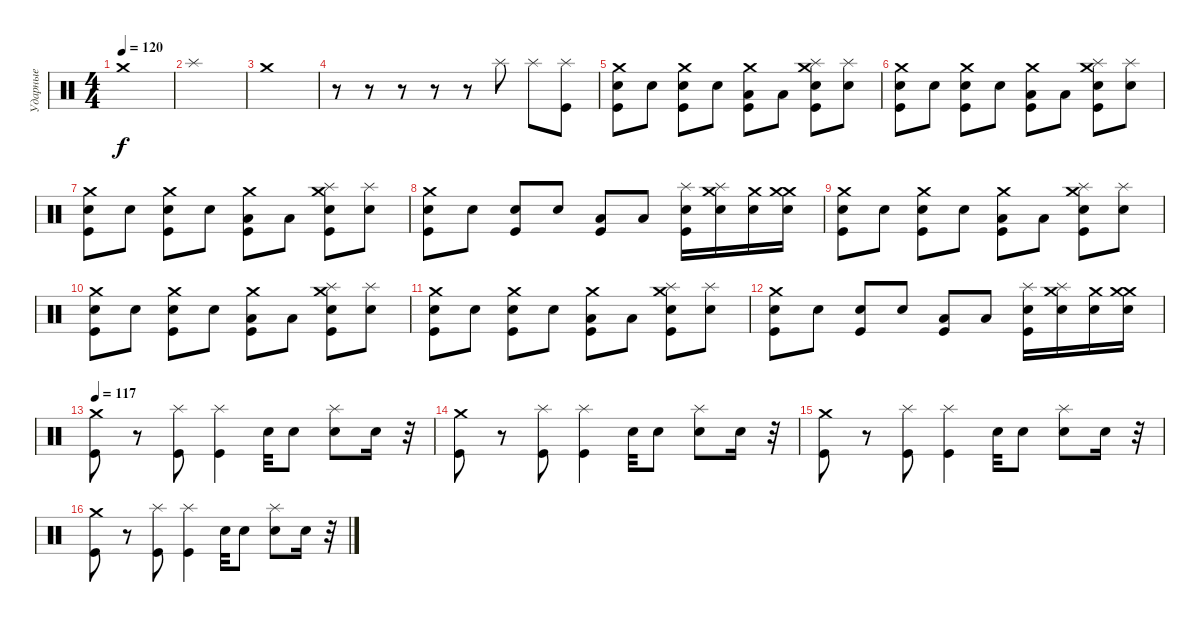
\track ("Ударные" "Ударные") {instrument percussion}
\staff {score}
\articulation defaults
\ts (4 4)
\tempo 120
\clef neutral
\ks c "Crash medium (hit)".1{dy f}
|
"Splash (hit)".1 |
"Crash medium (hit)".1 |
r.8 r.8 r.8 r.8 r.8 "Splash (hit)".8 "Splash (hit)".8 ("Splash (hit)" "Kick (hit)").8 |
("Crash medium (hit)" "Snare (hit) 2" "Kick (hit)").8 "Snare (hit) 2".8 ("Crash medium (hit)" "Electric Snare (hit)" "Kick (hit)").8 "Electric Snare (hit)".8 ("Crash medium (hit)" "Low Floor Tom (hit)" "Kick (hit)").8 "Low Floor Tom (hit)".8 ("Splash (hit)" "Crash medium (hit)" "Electric Snare (hit)" "Kick (hit)").8 ("Splash (hit)" "Electric Snare (hit)").8 |
("Crash medium (hit)" "Snare (hit) 2" "Kick (hit)").8 "Snare (hit) 2".8 ("Crash medium (hit)" "Electric Snare (hit)" "Kick (hit)").8 "Electric Snare (hit)".8 ("Crash medium (hit)" "Low Floor Tom (hit)" "Kick (hit)").8 "Low Floor Tom (hit)".8 ("Splash (hit)" "Crash medium (hit)" "Electric Snare (hit)" "Kick (hit)").8 ("Splash (hit)" "Electric Snare (hit)").8 |
("Crash medium (hit)" "Snare (hit) 2" "Kick (hit)").8 "Snare (hit) 2".8 ("Crash medium (hit)" "Electric Snare (hit)" "Kick (hit)").8 "Electric Snare (hit)".8 ("Crash medium (hit)" "Low Floor Tom (hit)" "Kick (hit)").8 "Low Floor Tom (hit)".8 ("Splash (hit)" "Crash medium (hit)" "Electric Snare (hit)" "Kick (hit)").8 ("Splash (hit)" "Electric Snare (hit)").8 |
("Crash medium (hit)" "Snare (hit) 2" "Kick (hit)").8 "Snare (hit) 2".8 ("Electric Snare (hit)" "Kick (hit)").8 "Electric Snare (hit)".8 ("Low Floor Tom (hit)" "Kick (hit)").8 "Low Floor Tom (hit)".8 ("Splash (hit)" "Electric Snare (hit)" "Kick (hit)").16 ("Splash (hit)" "Crash medium (hit)" "Snare (hit) 2").16 ("Crash medium (hit)" "Snare (hit) 2").16 ("Crash medium (hit)" "Crash medium (hit)" "Snare (hit) 2").16 |
("Crash medium (hit)" "Snare (hit) 2" "Kick (hit)").8 "Snare (hit) 2".8 ("Crash medium (hit)" "Electric Snare (hit)" "Kick (hit)").8 "Electric Snare (hit)".8 ("Crash medium (hit)" "Low Floor Tom (hit)" "Kick (hit)").8 "Low Floor Tom (hit)".8 ("Splash (hit)" "Crash medium (hit)" "Electric Snare (hit)" "Kick (hit)").8 ("Splash (hit)" "Electric Snare (hit)").8 |
("Crash medium (hit)" "Snare (hit) 2" "Kick (hit)").8 "Snare (hit) 2".8 ("Crash medium (hit)" "Electric Snare (hit)" "Kick (hit)").8 "Electric Snare (hit)".8 ("Crash medium (hit)" "Low Floor Tom (hit)" "Kick (hit)").8 "Low Floor Tom (hit)".8 ("Splash (hit)" "Crash medium (hit)" "Electric Snare (hit)" "Kick (hit)").8 ("Splash (hit)" "Electric Snare (hit)").8 |
("Crash medium (hit)" "Snare (hit) 2" "Kick (hit)").8 "Snare (hit) 2".8 ("Crash medium (hit)" "Electric Snare (hit)" "Kick (hit)").8 "Electric Snare (hit)".8 ("Crash medium (hit)" "Low Floor Tom (hit)" "Kick (hit)").8 "Low Floor Tom (hit)".8 ("Splash (hit)" "Crash medium (hit)" "Electric Snare (hit)" "Kick (hit)").8 ("Splash (hit)" "Electric Snare (hit)").8 |
("Crash medium (hit)" "Snare (hit) 2" "Kick (hit)").8 "Snare (hit) 2".8 ("Electric Snare (hit)" "Kick (hit)").8 "Electric Snare (hit)".8 ("Low Floor Tom (hit)" "Kick (hit)").8 "Low Floor Tom (hit)".8 ("Splash (hit)" "Electric Snare (hit)" "Kick (hit)").16 ("Splash (hit)" "Crash medium (hit)" "Snare (hit) 2").16 ("Crash medium (hit)" "Snare (hit) 2").16 ("Crash medium (hit)" "Crash medium (hit)" "Snare (hit) 2").16 |
\tempo 117
("Crash medium (hit)" "Kick (hit)").8 r.8 ("Splash (hit)" "Kick (hit)").8 ("Splash (hit)" "Kick (hit)").4 "Snare (hit) 2".32 "Snare (hit) 2".8 ("Splash (hit)" "Electric Snare (hit)").8 "Snare (hit) 2".16 r.32 |
("Crash medium (hit)" "Kick (hit)").8 r.8 ("Splash (hit)" "Kick (hit)").8 ("Splash (hit)" "Kick (hit)").4 "Snare (hit) 2".32 "Snare (hit) 2".8 ("Splash (hit)" "Electric Snare (hit)").8 "Snare (hit) 2".16 r.32 |
("Crash medium (hit)" "Kick (hit)").8 r.8 ("Splash (hit)" "Kick (hit)").8 ("Splash (hit)" "Kick (hit)").4 "Snare (hit) 2".32 "Snare (hit) 2".8 ("Splash (hit)" "Electric Snare (hit)").8 "Snare (hit) 2".16 r.32 |
("Crash medium (hit)" "Kick (hit)").8 r.8 ("Splash (hit)" "Kick (hit)").8 ("Splash (hit)" "Kick (hit)").4 "Snare (hit) 2".32 "Snare (hit) 2".8 ("Splash (hit)" "Electric Snare (hit)").8 "Snare (hit) 2".16 r.32
